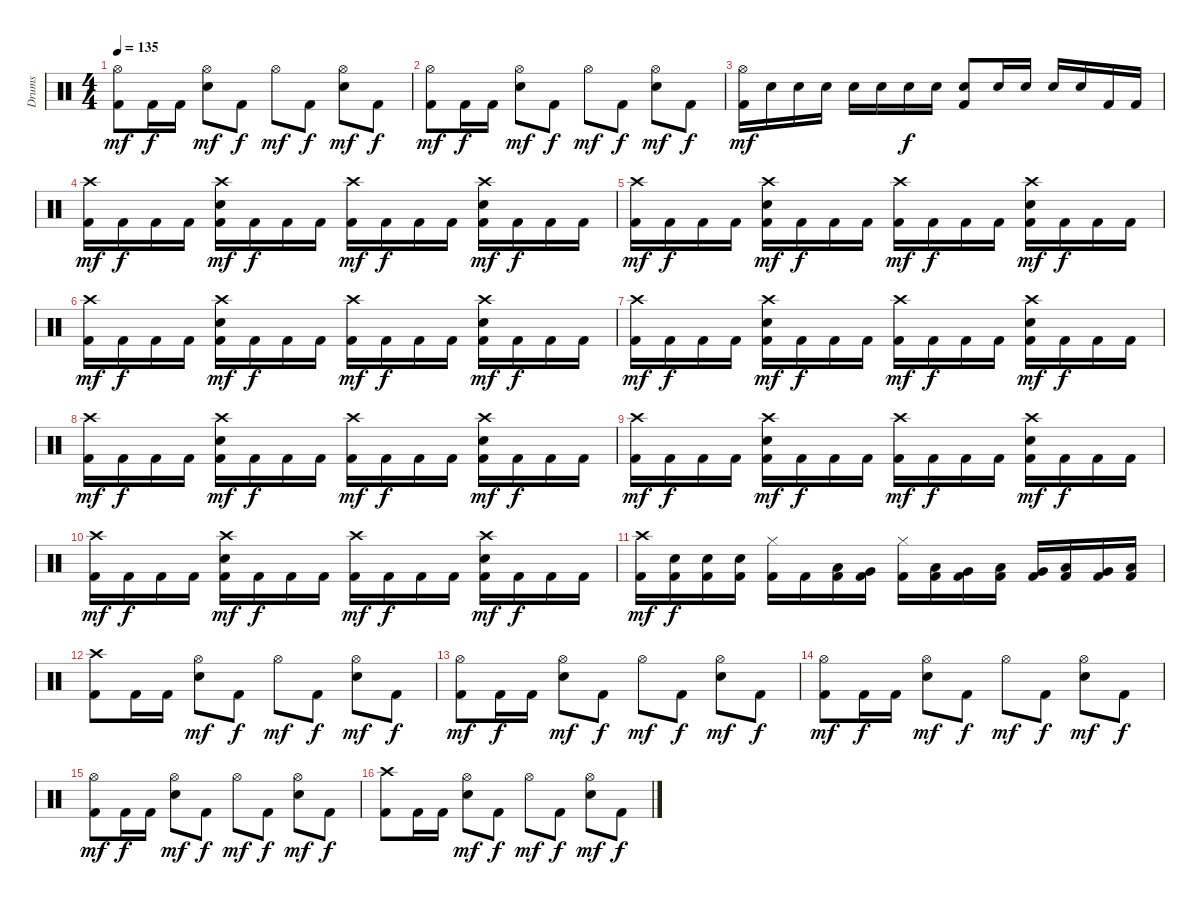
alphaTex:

\track ("Drums" "Drums") {instrument percussion}
\staff {score}
\articulation defaults
\ts (4 4)
\tempo 135
\clef neutral
\ks c
("Kick (hit) 2" "Hi-Hat (open)").8{dy mf} "Kick (hit) 2".16{dy f} "Kick (hit) 2".16 ("Electric Snare (hit)" "Hi-Hat (open)").8{dy mf} "Kick (hit) 2".8{dy f} "Hi-Hat (open)".8{dy mf} "Kick (hit) 2".8{dy f} ("Electric Snare (hit)" "Hi-Hat (open)").8{dy mf} "Kick (hit) 2".8{dy f} |
("Kick (hit) 2" "Hi-Hat (open)").8{dy mf} "Kick (hit) 2".16{dy f} "Kick (hit) 2".16 ("Electric Snare (hit)" "Hi-Hat (open)").8{dy mf} "Kick (hit) 2".8{dy f} "Hi-Hat (open)".8{dy mf} "Kick (hit) 2".8{dy f} ("Electric Snare (hit)" "Hi-Hat (open)").8{dy mf} "Kick (hit) 2".8{dy f} |
("Kick (hit) 2" "Hi-Hat (open)").16{dy mf} "Electric Snare (hit)".16 "Electric Snare (hit)".16 "Electric Snare (hit)".16 "Electric Snare (hit)".16 "Electric Snare (hit)".16 "Electric Snare (hit)".16{dy f} "Electric Snare (hit)".16 ("Kick (hit) 2" "Electric Snare (hit)").8 "Electric Snare (hit)".16 "Electric Snare (hit)".16 "Electric Snare (hit)".16 "Electric Snare (hit)".16 "Kick (hit) 2".16 "Kick (hit) 2".16 |
("Kick (hit) 2" "Crash high (hit)").16{dy mf} "Kick (hit) 2".16{dy f} "Kick (hit) 2".16 "Kick (hit) 2".16 ("Kick (hit) 2" "Electric Snare (hit)" "Crash high (hit)").16{dy mf} "Kick (hit) 2".16{dy f} "Kick (hit) 2".16 "Kick (hit) 2".16 ("Kick (hit) 2" "Crash high (hit)").16{dy mf} "Kick (hit) 2".16{dy f} "Kick (hit) 2".16 "Kick (hit) 2".16 ("Kick (hit) 2" "Electric Snare (hit)" "Crash high (hit)").16{dy mf} "Kick (hit) 2".16{dy f} "Kick (hit) 2".16 "Kick (hit) 2".16 |
("Kick (hit) 2" "Crash high (hit)").16{dy mf} "Kick (hit) 2".16{dy f} "Kick (hit) 2".16 "Kick (hit) 2".16 ("Kick (hit) 2" "Electric Snare (hit)" "Crash high (hit)").16{dy mf} "Kick (hit) 2".16{dy f} "Kick (hit) 2".16 "Kick (hit) 2".16 ("Kick (hit) 2" "Crash high (hit)").16{dy mf} "Kick (hit) 2".16{dy f} "Kick (hit) 2".16 "Kick (hit) 2".16 ("Kick (hit) 2" "Electric Snare (hit)" "Crash high (hit)").16{dy mf} "Kick (hit) 2".16{dy f} "Kick (hit) 2".16 "Kick (hit) 2".16 |
("Kick (hit) 2" "Crash high (hit)").16{dy mf} "Kick (hit) 2".16{dy f} "Kick (hit) 2".16 "Kick (hit) 2".16 ("Kick (hit) 2" "Electric Snare (hit)" "Crash high (hit)").16{dy mf} "Kick (hit) 2".16{dy f} "Kick (hit) 2".16 "Kick (hit) 2".16 ("Kick (hit) 2" "Crash high (hit)").16{dy mf} "Kick (hit) 2".16{dy f} "Kick (hit) 2".16 "Kick (hit) 2".16 ("Kick (hit) 2" "Electric Snare (hit)" "Crash high (hit)").16{dy mf} "Kick (hit) 2".16{dy f} "Kick (hit) 2".16 "Kick (hit) 2".16 |
("Kick (hit) 2" "Crash high (hit)").16{dy mf} "Kick (hit) 2".16{dy f} "Kick (hit) 2".16 "Kick (hit) 2".16 ("Kick (hit) 2" "Electric Snare (hit)" "Crash high (hit)").16{dy mf} "Kick (hit) 2".16{dy f} "Kick (hit) 2".16 "Kick (hit) 2".16 ("Kick (hit) 2" "Crash high (hit)").16{dy mf} "Kick (hit) 2".16{dy f} "Kick (hit) 2".16 "Kick (hit) 2".16 ("Kick (hit) 2" "Electric Snare (hit)" "Crash high (hit)").16{dy mf} "Kick (hit) 2".16{dy f} "Kick (hit) 2".16 "Kick (hit) 2".16 |
("Kick (hit) 2" "Crash high (hit)").16{dy mf} "Kick (hit) 2".16{dy f} "Kick (hit) 2".16 "Kick (hit) 2".16 ("Kick (hit) 2" "Electric Snare (hit)" "Crash high (hit)").16{dy mf} "Kick (hit) 2".16{dy f} "Kick (hit) 2".16 "Kick (hit) 2".16 ("Kick (hit) 2" "Crash high (hit)").16{dy mf} "Kick (hit) 2".16{dy f} "Kick (hit) 2".16 "Kick (hit) 2".16 ("Kick (hit) 2" "Electric Snare (hit)" "Crash high (hit)").16{dy mf} "Kick (hit) 2".16{dy f} "Kick (hit) 2".16 "Kick (hit) 2".16 |
("Kick (hit) 2" "Crash high (hit)").16{dy mf} "Kick (hit) 2".16{dy f} "Kick (hit) 2".16 "Kick (hit) 2".16 ("Kick (hit) 2" "Electric Snare (hit)" "Crash high (hit)").16{dy mf} "Kick (hit) 2".16{dy f} "Kick (hit) 2".16 "Kick (hit) 2".16 ("Kick (hit) 2" "Crash high (hit)").16{dy mf} "Kick (hit) 2".16{dy f} "Kick (hit) 2".16 "Kick (hit) 2".16 ("Kick (hit) 2" "Electric Snare (hit)" "Crash high (hit)").16{dy mf} "Kick (hit) 2".16{dy f} "Kick (hit) 2".16 "Kick (hit) 2".16 |
("Kick (hit) 2" "Crash high (hit)").16{dy mf} "Kick (hit) 2".16{dy f} "Kick (hit) 2".16 "Kick (hit) 2".16 ("Kick (hit) 2" "Electric Snare (hit)" "Crash high (hit)").16{dy mf} "Kick (hit) 2".16{dy f} "Kick (hit) 2".16 "Kick (hit) 2".16 ("Kick (hit) 2" "Crash high (hit)").16{dy mf} "Kick (hit) 2".16{dy f} "Kick (hit) 2".16 "Kick (hit) 2".16 ("Kick (hit) 2" "Electric Snare (hit)" "Crash high (hit)").16{dy mf} "Kick (hit) 2".16{dy f} "Kick (hit) 2".16 "Kick (hit) 2".16 |
("Kick (hit) 2" "Crash high (hit)").16{dy mf} ("Kick (hit) 2" "Electric Snare (hit)").16{dy f} ("Kick (hit) 2" "Electric Snare (hit)").16 ("Kick (hit) 2" "Electric Snare (hit)").16 ("Kick (hit) 2" "Hi-Hat (closed)").16 "Kick (hit) 2".16 ("Kick (hit) 2" "Low Floor Tom (hit)").16 ("Kick (hit) 2" "Very Low Tom (hit)").16 ("Kick (hit) 2" "Hi-Hat (closed)").16 ("Kick (hit) 2" "Low Floor Tom (hit)").16 ("Kick (hit) 2" "Very Low Tom (hit)").16 ("Kick (hit) 2" "Low Floor Tom (hit)").16 ("Kick (hit) 2" "Very Low Tom (hit)").16 ("Kick (hit) 2" "Low Tom (hit)").16 ("Kick (hit) 2" "Very Low Tom (hit)").16 ("Kick (hit) 2" "Low Tom (hit)").16 |
("Kick (hit) 2" "Crash high (hit)").8 "Kick (hit) 2".16 "Kick (hit) 2".16 ("Electric Snare (hit)" "Hi-Hat (open)").8{dy mf} "Kick (hit) 2".8{dy f} "Hi-Hat (open)".8{dy mf} "Kick (hit) 2".8{dy f} ("Electric Snare (hit)" "Hi-Hat (open)").8{dy mf} "Kick (hit) 2".8{dy f} |
("Kick (hit) 2" "Hi-Hat (open)").8{dy mf} "Kick (hit) 2".16{dy f} "Kick (hit) 2".16 ("Electric Snare (hit)" "Hi-Hat (open)").8{dy mf} "Kick (hit) 2".8{dy f} "Hi-Hat (open)".8{dy mf} "Kick (hit) 2".8{dy f} ("Electric Snare (hit)" "Hi-Hat (open)").8{dy mf} "Kick (hit) 2".8{dy f} |
("Kick (hit) 2" "Hi-Hat (open)").8{dy mf} "Kick (hit) 2".16{dy f} "Kick (hit) 2".16 ("Electric Snare (hit)" "Hi-Hat (open)").8{dy mf} "Kick (hit) 2".8{dy f} "Hi-Hat (open)".8{dy mf} "Kick (hit) 2".8{dy f} ("Electric Snare (hit)" "Hi-Hat (open)").8{dy mf} "Kick (hit) 2".8{dy f} |
("Kick (hit) 2" "Hi-Hat (open)").8{dy mf} "Kick (hit) 2".16{dy f} "Kick (hit) 2".16 ("Electric Snare (hit)" "Hi-Hat (open)").8{dy mf} "Kick (hit) 2".8{dy f} "Hi-Hat (open)".8{dy mf} "Kick (hit) 2".8{dy f} ("Electric Snare (hit)" "Hi-Hat (open)").8{dy mf} "Kick (hit) 2".8{dy f} |
("Kick (hit) 2" "Crash high (hit)").8 "Kick (hit) 2".16 "Kick (hit) 2".16 ("Electric Snare (hit)" "Hi-Hat (open)").8{dy mf} "Kick (hit) 2".8{dy f} "Hi-Hat (open)".8{dy mf} "Kick (hit) 2".8{dy f} ("Electric Snare (hit)" "Hi-Hat (open)").8{dy mf} "Kick (hit) 2".8{dy f}
